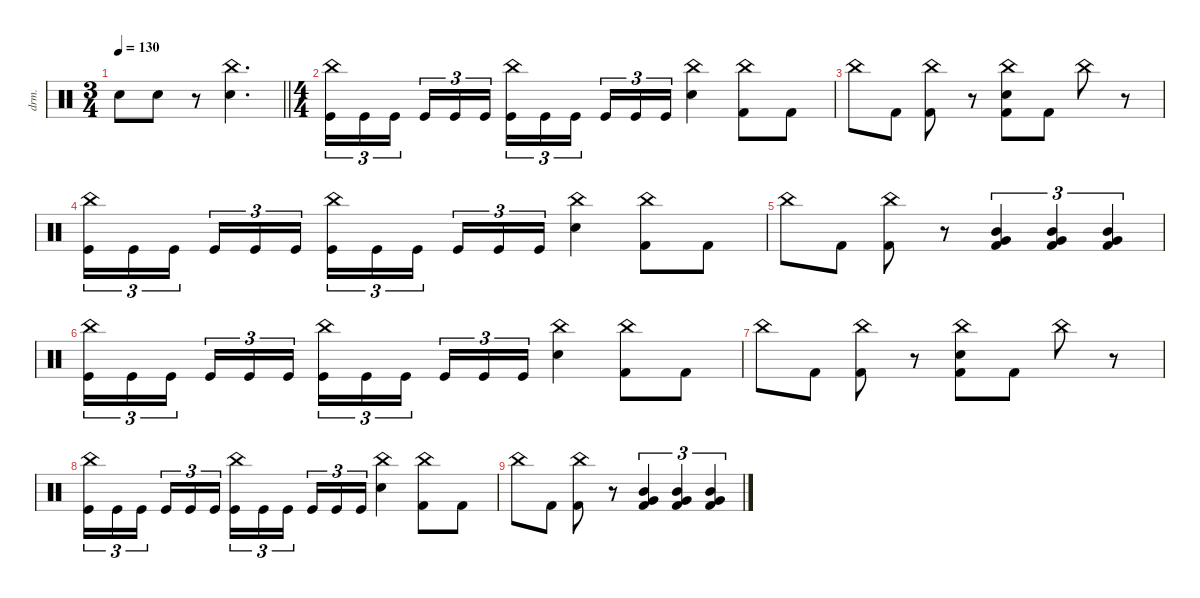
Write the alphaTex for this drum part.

\defaultSystemsLayout 4
\hideDynamics
\bracketExtendMode nobrackets
\track ("Manouche" "drm.") {instrument percussion}
\staff {score}
\articulation defaults
\ts (3 4)
\tempo 130
\clef neutral
\barLineRight lightlight
\ks c "Snare (hit) 2".8{dy f beam Down} "Snare (hit) 2".8{beam Down}
r.8{beam Down} ("China (hit)" "Snare (hit) 2").4{d beam Down} |
\ts (4 4)
\beaming (8 2 2 2 2)
("Kick (hit)" "China (hit)").16{tu (3 2) beam Down} "Kick (hit)".16{tu (3 2) beam Down} "Kick (hit)".16{tu (3 2) beam Down} "Kick (hit)".16{tu (3 2) beam Up} "Kick (hit)".16{tu (3 2) beam Up} "Kick (hit)".16{tu (3 2) beam Up} ("China (hit)" "Kick (hit)").16{tu (3 2) beam Down} "Kick (hit)".16{tu (3 2) beam Down} "Kick (hit)".16{tu (3 2) beam Down} "Kick (hit)".16{tu (3 2) beam Up} "Kick (hit)".16{tu (3 2) beam Up} "Kick (hit)".16{tu (3 2) beam Up} ("China (hit)" "Snare (hit) 2").4{beam Down} ("Kick (hit) 2" "China (hit)").8{beam Down} "Kick (hit) 2".8{beam Down} |
"China (hit)".8{beam Down} "Kick (hit) 2".8{beam Down} ("Kick (hit) 2" "China (hit)").8{beam Down} r.8{beam Down} ("Kick (hit) 2" "China (hit)" "Snare (hit) 2").8{beam Down} "Kick (hit) 2".8{beam Down} "China (hit)".8{beam Down} r.8{beam Down} |
("Kick (hit)" "China (hit)").16{tu (3 2) beam Down} "Kick (hit)".16{tu (3 2) beam Down} "Kick (hit)".16{tu (3 2) beam Down} "Kick (hit)".16{tu (3 2) beam Up} "Kick (hit)".16{tu (3 2) beam Up} "Kick (hit)".16{tu (3 2) beam Up} ("China (hit)" "Kick (hit)").16{tu (3 2) beam Down} "Kick (hit)".16{tu (3 2) beam Down} "Kick (hit)".16{tu (3 2) beam Down} "Kick (hit)".16{tu (3 2) beam Up} "Kick (hit)".16{tu (3 2) beam Up} "Kick (hit)".16{tu (3 2) beam Up} ("China (hit)" "Snare (hit) 2").4{beam Down} ("Kick (hit) 2" "China (hit)").8{beam Down} "Kick (hit) 2".8{beam Down} |
"China (hit)".8{beam Down} "Kick (hit) 2".8{beam Down} ("Kick (hit) 2" "China (hit)").8{beam Down} r.8{beam Down} ("Kick (hit) 2" "Mid Tom (hit)" "Very Low Tom (hit)").4{tu (3 2) beam Up} ("Kick (hit) 2" "Mid Tom (hit)" "Very Low Tom (hit)").4{tu (3 2) beam Up} ("Kick (hit) 2" "Mid Tom (hit)" "Very Low Tom (hit)").4{tu (3 2) beam Up} |
("Kick (hit)" "China (hit)").16{tu (3 2) beam Down} "Kick (hit)".16{tu (3 2) beam Down} "Kick (hit)".16{tu (3 2) beam Down} "Kick (hit)".16{tu (3 2) beam Up} "Kick (hit)".16{tu (3 2) beam Up} "Kick (hit)".16{tu (3 2) beam Up} ("China (hit)" "Kick (hit)").16{tu (3 2) beam Down} "Kick (hit)".16{tu (3 2) beam Down} "Kick (hit)".16{tu (3 2) beam Down} "Kick (hit)".16{tu (3 2) beam Up} "Kick (hit)".16{tu (3 2) beam Up} "Kick (hit)".16{tu (3 2) beam Up} ("China (hit)" "Snare (hit) 2").4{beam Down} ("Kick (hit) 2" "China (hit)").8{beam Down} "Kick (hit) 2".8{beam Down} |
"China (hit)".8{beam Down} "Kick (hit) 2".8{beam Down} ("Kick (hit) 2" "China (hit)").8{beam Down} r.8{beam Down} ("Kick (hit) 2" "China (hit)" "Snare (hit) 2").8{beam Down} "Kick (hit) 2".8{beam Down} "China (hit)".8{beam Down} r.8{beam Down} |
("Kick (hit)" "China (hit)").16{tu (3 2) beam Down} "Kick (hit)".16{tu (3 2) beam Down} "Kick (hit)".16{tu (3 2) beam Down} "Kick (hit)".16{tu (3 2) beam Up} "Kick (hit)".16{tu (3 2) beam Up} "Kick (hit)".16{tu (3 2) beam Up} ("China (hit)" "Kick (hit)").16{tu (3 2) beam Down} "Kick (hit)".16{tu (3 2) beam Down} "Kick (hit)".16{tu (3 2) beam Down} "Kick (hit)".16{tu (3 2) beam Up} "Kick (hit)".16{tu (3 2) beam Up} "Kick (hit)".16{tu (3 2) beam Up} ("China (hit)" "Snare (hit) 2").4{beam Down} ("Kick (hit) 2" "China (hit)").8{beam Down} "Kick (hit) 2".8{beam Down} |
"China (hit)".8{beam Down} "Kick (hit) 2".8{beam Down} ("Kick (hit) 2" "China (hit)").8{beam Down} r.8{beam Down} ("Kick (hit) 2" "Mid Tom (hit)" "Very Low Tom (hit)").4{tu (3 2) beam Up} ("Kick (hit) 2" "Mid Tom (hit)" "Very Low Tom (hit)").4{tu (3 2) beam Up} ("Kick (hit) 2" "Mid Tom (hit)" "Very Low Tom (hit)").4{tu (3 2) beam Up}
